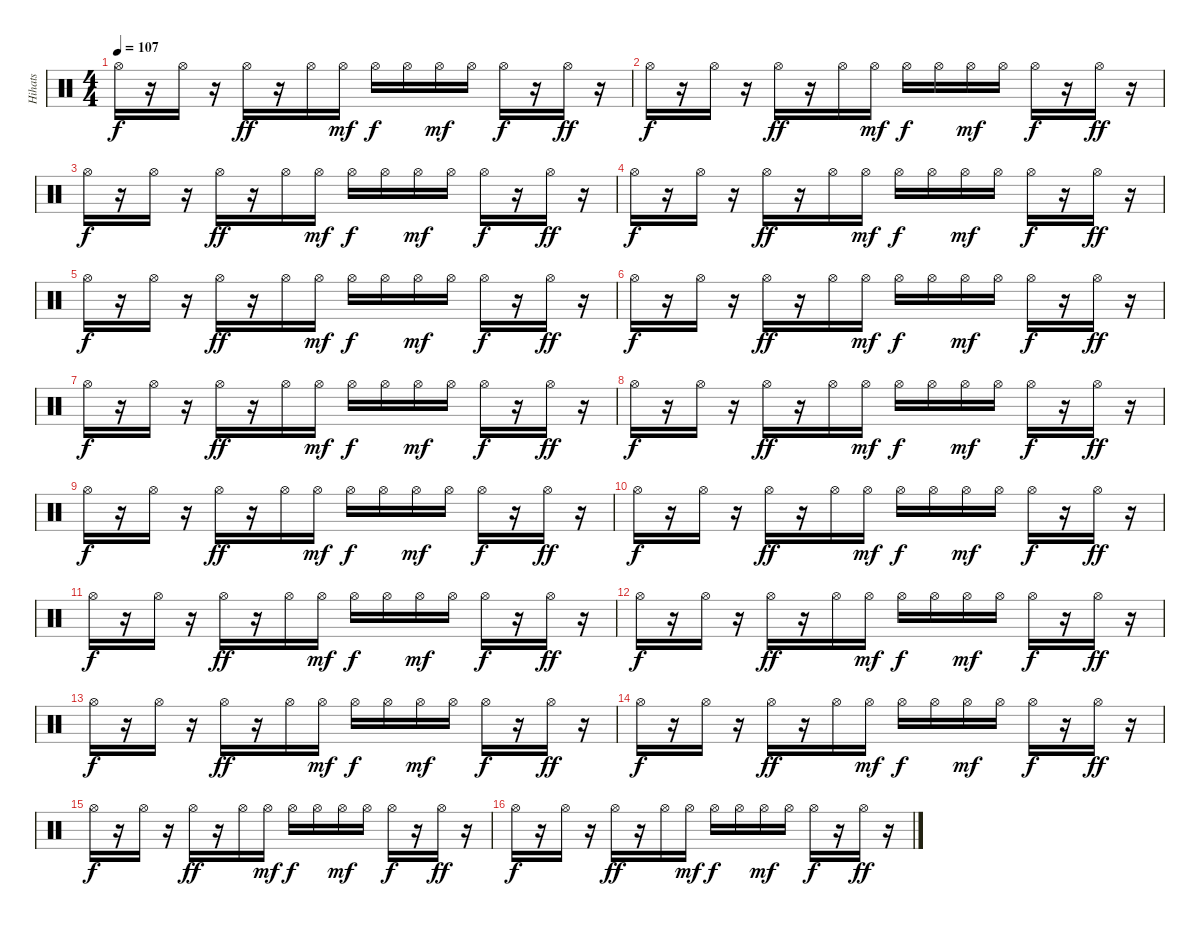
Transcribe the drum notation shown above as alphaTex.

\track ("Hihats" "Hihats") {instrument percussion}
\staff {score}
\articulation defaults
\ts (4 4)
\tempo 107
\clef neutral
\ks c "Hi-Hat (open)".16{dy f}
r.16 "Hi-Hat (open)".16 r.16 "Hi-Hat (open)".16{dy ff} r.16 "Hi-Hat (open)".16 "Hi-Hat (open)".16{dy mf} "Hi-Hat (open)".16{dy f} "Hi-Hat (open)".16 "Hi-Hat (open)".16{dy mf} "Hi-Hat (open)".16 "Hi-Hat (open)".16{dy f} r.16 "Hi-Hat (open)".16{dy ff} r.16 |
"Hi-Hat (open)".16{dy f} r.16 "Hi-Hat (open)".16 r.16 "Hi-Hat (open)".16{dy ff} r.16 "Hi-Hat (open)".16 "Hi-Hat (open)".16{dy mf} "Hi-Hat (open)".16{dy f} "Hi-Hat (open)".16 "Hi-Hat (open)".16{dy mf} "Hi-Hat (open)".16 "Hi-Hat (open)".16{dy f} r.16 "Hi-Hat (open)".16{dy ff} r.16 |
"Hi-Hat (open)".16{dy f} r.16 "Hi-Hat (open)".16 r.16 "Hi-Hat (open)".16{dy ff} r.16 "Hi-Hat (open)".16 "Hi-Hat (open)".16{dy mf} "Hi-Hat (open)".16{dy f} "Hi-Hat (open)".16 "Hi-Hat (open)".16{dy mf} "Hi-Hat (open)".16 "Hi-Hat (open)".16{dy f} r.16 "Hi-Hat (open)".16{dy ff} r.16 |
"Hi-Hat (open)".16{dy f} r.16 "Hi-Hat (open)".16 r.16 "Hi-Hat (open)".16{dy ff} r.16 "Hi-Hat (open)".16 "Hi-Hat (open)".16{dy mf} "Hi-Hat (open)".16{dy f} "Hi-Hat (open)".16 "Hi-Hat (open)".16{dy mf} "Hi-Hat (open)".16 "Hi-Hat (open)".16{dy f} r.16 "Hi-Hat (open)".16{dy ff} r.16 |
"Hi-Hat (open)".16{dy f} r.16 "Hi-Hat (open)".16 r.16 "Hi-Hat (open)".16{dy ff} r.16 "Hi-Hat (open)".16 "Hi-Hat (open)".16{dy mf} "Hi-Hat (open)".16{dy f} "Hi-Hat (open)".16 "Hi-Hat (open)".16{dy mf} "Hi-Hat (open)".16 "Hi-Hat (open)".16{dy f} r.16 "Hi-Hat (open)".16{dy ff} r.16 |
"Hi-Hat (open)".16{dy f} r.16 "Hi-Hat (open)".16 r.16 "Hi-Hat (open)".16{dy ff} r.16 "Hi-Hat (open)".16 "Hi-Hat (open)".16{dy mf} "Hi-Hat (open)".16{dy f} "Hi-Hat (open)".16 "Hi-Hat (open)".16{dy mf} "Hi-Hat (open)".16 "Hi-Hat (open)".16{dy f} r.16 "Hi-Hat (open)".16{dy ff} r.16 |
"Hi-Hat (open)".16{dy f} r.16 "Hi-Hat (open)".16 r.16 "Hi-Hat (open)".16{dy ff} r.16 "Hi-Hat (open)".16 "Hi-Hat (open)".16{dy mf} "Hi-Hat (open)".16{dy f} "Hi-Hat (open)".16 "Hi-Hat (open)".16{dy mf} "Hi-Hat (open)".16 "Hi-Hat (open)".16{dy f} r.16 "Hi-Hat (open)".16{dy ff} r.16 |
"Hi-Hat (open)".16{dy f} r.16 "Hi-Hat (open)".16 r.16 "Hi-Hat (open)".16{dy ff} r.16 "Hi-Hat (open)".16 "Hi-Hat (open)".16{dy mf} "Hi-Hat (open)".16{dy f} "Hi-Hat (open)".16 "Hi-Hat (open)".16{dy mf} "Hi-Hat (open)".16 "Hi-Hat (open)".16{dy f} r.16 "Hi-Hat (open)".16{dy ff} r.16 |
"Hi-Hat (open)".16{dy f} r.16 "Hi-Hat (open)".16 r.16 "Hi-Hat (open)".16{dy ff} r.16 "Hi-Hat (open)".16 "Hi-Hat (open)".16{dy mf} "Hi-Hat (open)".16{dy f} "Hi-Hat (open)".16 "Hi-Hat (open)".16{dy mf} "Hi-Hat (open)".16 "Hi-Hat (open)".16{dy f} r.16 "Hi-Hat (open)".16{dy ff} r.16 |
"Hi-Hat (open)".16{dy f} r.16 "Hi-Hat (open)".16 r.16 "Hi-Hat (open)".16{dy ff} r.16 "Hi-Hat (open)".16 "Hi-Hat (open)".16{dy mf} "Hi-Hat (open)".16{dy f} "Hi-Hat (open)".16 "Hi-Hat (open)".16{dy mf} "Hi-Hat (open)".16 "Hi-Hat (open)".16{dy f} r.16 "Hi-Hat (open)".16{dy ff} r.16 |
"Hi-Hat (open)".16{dy f} r.16 "Hi-Hat (open)".16 r.16 "Hi-Hat (open)".16{dy ff} r.16 "Hi-Hat (open)".16 "Hi-Hat (open)".16{dy mf} "Hi-Hat (open)".16{dy f} "Hi-Hat (open)".16 "Hi-Hat (open)".16{dy mf} "Hi-Hat (open)".16 "Hi-Hat (open)".16{dy f} r.16 "Hi-Hat (open)".16{dy ff} r.16 |
"Hi-Hat (open)".16{dy f} r.16 "Hi-Hat (open)".16 r.16 "Hi-Hat (open)".16{dy ff} r.16 "Hi-Hat (open)".16 "Hi-Hat (open)".16{dy mf} "Hi-Hat (open)".16{dy f} "Hi-Hat (open)".16 "Hi-Hat (open)".16{dy mf} "Hi-Hat (open)".16 "Hi-Hat (open)".16{dy f} r.16 "Hi-Hat (open)".16{dy ff} r.16 |
"Hi-Hat (open)".16{dy f} r.16 "Hi-Hat (open)".16 r.16 "Hi-Hat (open)".16{dy ff} r.16 "Hi-Hat (open)".16 "Hi-Hat (open)".16{dy mf} "Hi-Hat (open)".16{dy f} "Hi-Hat (open)".16 "Hi-Hat (open)".16{dy mf} "Hi-Hat (open)".16 "Hi-Hat (open)".16{dy f} r.16 "Hi-Hat (open)".16{dy ff} r.16 |
"Hi-Hat (open)".16{dy f} r.16 "Hi-Hat (open)".16 r.16 "Hi-Hat (open)".16{dy ff} r.16 "Hi-Hat (open)".16 "Hi-Hat (open)".16{dy mf} "Hi-Hat (open)".16{dy f} "Hi-Hat (open)".16 "Hi-Hat (open)".16{dy mf} "Hi-Hat (open)".16 "Hi-Hat (open)".16{dy f} r.16 "Hi-Hat (open)".16{dy ff} r.16 |
"Hi-Hat (open)".16{dy f} r.16 "Hi-Hat (open)".16 r.16 "Hi-Hat (open)".16{dy ff} r.16 "Hi-Hat (open)".16 "Hi-Hat (open)".16{dy mf} "Hi-Hat (open)".16{dy f} "Hi-Hat (open)".16 "Hi-Hat (open)".16{dy mf} "Hi-Hat (open)".16 "Hi-Hat (open)".16{dy f} r.16 "Hi-Hat (open)".16{dy ff} r.16 |
"Hi-Hat (open)".16{dy f} r.16 "Hi-Hat (open)".16 r.16 "Hi-Hat (open)".16{dy ff} r.16 "Hi-Hat (open)".16 "Hi-Hat (open)".16{dy mf} "Hi-Hat (open)".16{dy f} "Hi-Hat (open)".16 "Hi-Hat (open)".16{dy mf} "Hi-Hat (open)".16 "Hi-Hat (open)".16{dy f} r.16 "Hi-Hat (open)".16{dy ff} r.16
